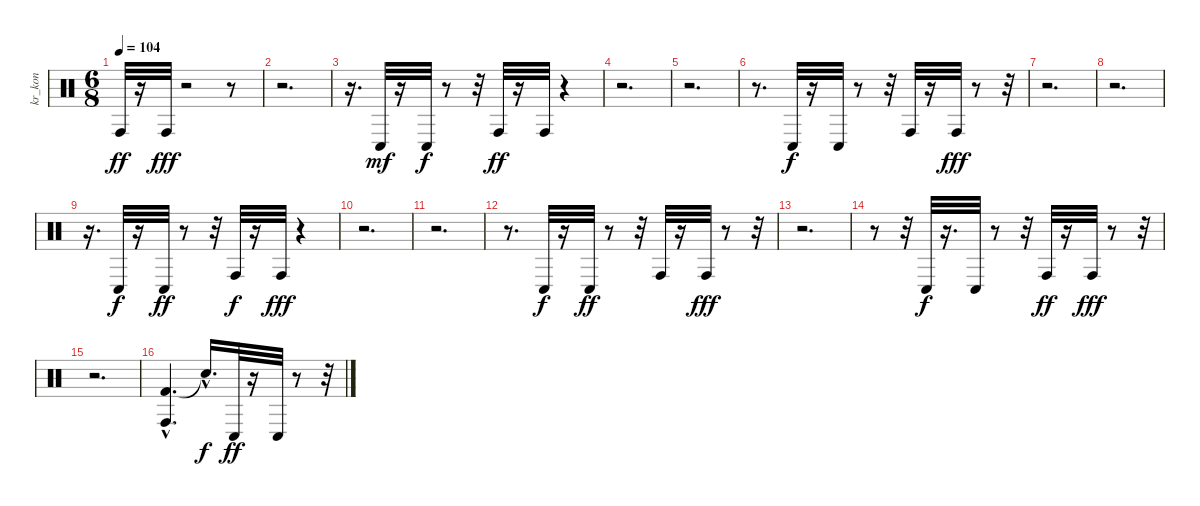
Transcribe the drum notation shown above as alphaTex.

\track ("kr_kon" "kr_kon") {instrument percussion}
\staff {score}
\articulation defaults
\ts (6 8)
\tempo 104
\clef neutral
\ks c "Conga high (hit)".32{dy ff}
r.16 "Conga high (hit)".32{dy fff} r.2 r.8 |
r.2{d} |
r.16{d} "Conga low (hit)".32{dy mf} r.16 "Conga low (hit)".32{dy f} r.8 r.32 "Conga high (hit)".32{dy ff} r.16 "Conga high (hit)".32 r.4 |
r.2{d} |
r.2{d} |
r.8{d} "Conga low (hit)".32{dy f} r.16 "Conga low (hit)".32 r.8 r.32 "Conga high (hit)".32 r.16 "Conga high (hit)".32{dy fff} r.8 r.32 |
r.2{d} |
r.2{d} |
r.16{d} "Conga low (hit)".32{dy f} r.16 "Conga low (hit)".32{dy ff} r.8 r.32 "Conga high (hit)".32{dy f} r.16 "Conga high (hit)".32{dy fff} r.4 |
r.2{d} |
r.2{d} |
r.8{d} "Conga low (hit)".32{dy f} r.16 "Conga low (hit)".32{dy ff} r.8 r.32 "Conga high (hit)".32 r.16 "Conga high (hit)".32{dy fff} r.8 r.32 |
r.2{d} |
r.8 r.32 "Conga low (hit)".32{dy f} r.16{d} "Conga low (hit)".32 r.8 r.32 "Conga high (hit)".32{dy ff} r.16 "Conga high (hit)".32{dy fff} r.8 r.32 |
r.2{d} |
("Kick (hit) 2"{hac} "Conga high (hit)").4{d} "Snare (hit)"{hac t}.16{d dy f} "Conga low (hit)".32{dy ff} r.16 "Conga low (hit)".32 r.8 r.32
